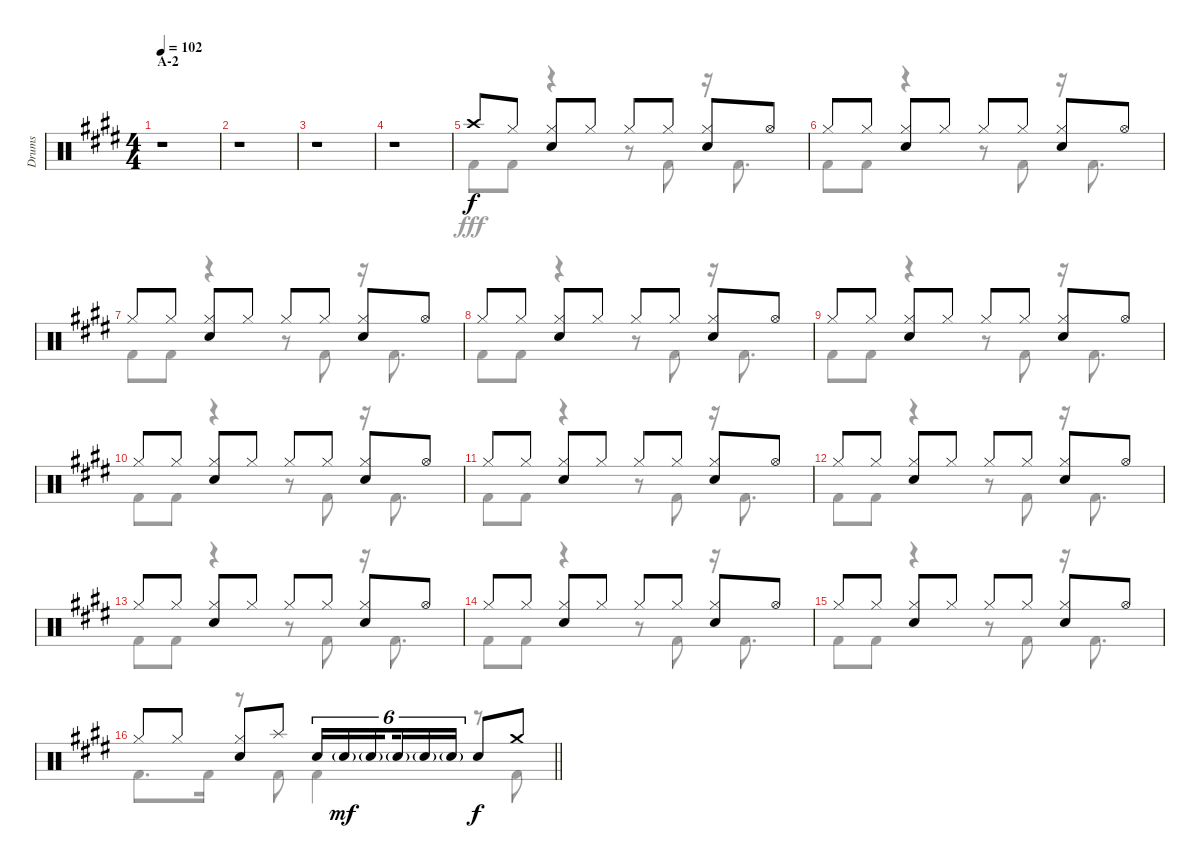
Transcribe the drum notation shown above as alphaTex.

\track ("Drums" "Drums") {instrument percussion}
\staff {score}
\articulation defaults
\voice
\ts (4 4)
\section ("" "A-2")
\tempo 102
\clef neutral
\ks e
r.1{dy f} |
r.1 |
r.1 |
r.1 |
"Crash high (hit)".8 "Hi-Hat (closed)".8 ("Hi-Hat (closed)" "Snare (hit) 2").8 "Hi-Hat (closed)".8 "Hi-Hat (closed)".8 "Hi-Hat (closed)".8 ("Hi-Hat (closed)" "Snare (hit) 2").8 "Hi-Hat (open)".8 |
"Hi-Hat (closed)".8 "Hi-Hat (closed)".8 ("Hi-Hat (closed)" "Snare (hit) 2").8 "Hi-Hat (closed)".8 "Hi-Hat (closed)".8 "Hi-Hat (closed)".8 ("Hi-Hat (closed)" "Snare (hit) 2").8 "Hi-Hat (open)".8 |
"Hi-Hat (closed)".8 "Hi-Hat (closed)".8 ("Hi-Hat (closed)" "Snare (hit) 2").8 "Hi-Hat (closed)".8 "Hi-Hat (closed)".8 "Hi-Hat (closed)".8 ("Hi-Hat (closed)" "Snare (hit) 2").8 "Hi-Hat (open)".8 |
"Hi-Hat (closed)".8 "Hi-Hat (closed)".8 ("Hi-Hat (closed)" "Snare (hit) 2").8 "Hi-Hat (closed)".8 "Hi-Hat (closed)".8 "Hi-Hat (closed)".8 ("Hi-Hat (closed)" "Snare (hit) 2").8 "Hi-Hat (open)".8 |
"Hi-Hat (closed)".8 "Hi-Hat (closed)".8 ("Hi-Hat (closed)" "Snare (hit) 2").8 "Hi-Hat (closed)".8 "Hi-Hat (closed)".8 "Hi-Hat (closed)".8 ("Hi-Hat (closed)" "Snare (hit) 2").8 "Hi-Hat (open)".8 |
"Hi-Hat (closed)".8 "Hi-Hat (closed)".8 ("Hi-Hat (closed)" "Snare (hit) 2").8 "Hi-Hat (closed)".8 "Hi-Hat (closed)".8 "Hi-Hat (closed)".8 ("Hi-Hat (closed)" "Snare (hit) 2").8 "Hi-Hat (open)".8 |
"Hi-Hat (closed)".8 "Hi-Hat (closed)".8 ("Hi-Hat (closed)" "Snare (hit) 2").8 "Hi-Hat (closed)".8 "Hi-Hat (closed)".8 "Hi-Hat (closed)".8 ("Hi-Hat (closed)" "Snare (hit) 2").8 "Hi-Hat (open)".8 |
"Hi-Hat (closed)".8 "Hi-Hat (closed)".8 ("Hi-Hat (closed)" "Snare (hit) 2").8 "Hi-Hat (closed)".8 "Hi-Hat (closed)".8 "Hi-Hat (closed)".8 ("Hi-Hat (closed)" "Snare (hit) 2").8 "Hi-Hat (open)".8 |
"Hi-Hat (closed)".8 "Hi-Hat (closed)".8 ("Hi-Hat (closed)" "Snare (hit) 2").8 "Hi-Hat (closed)".8 "Hi-Hat (closed)".8 "Hi-Hat (closed)".8 ("Hi-Hat (closed)" "Snare (hit) 2").8 "Hi-Hat (open)".8 |
"Hi-Hat (closed)".8 "Hi-Hat (closed)".8 ("Hi-Hat (closed)" "Snare (hit) 2").8 "Hi-Hat (closed)".8 "Hi-Hat (closed)".8 "Hi-Hat (closed)".8 ("Hi-Hat (closed)" "Snare (hit) 2").8 "Hi-Hat (open)".8 |
"Hi-Hat (closed)".8 "Hi-Hat (closed)".8 ("Hi-Hat (closed)" "Snare (hit) 2").8 "Hi-Hat (closed)".8 "Hi-Hat (closed)".8 "Hi-Hat (closed)".8 ("Hi-Hat (closed)" "Snare (hit) 2").8 "Hi-Hat (open)".8 |
\barLineRight lightlight "Hi-Hat (closed)".8 "Hi-Hat (closed)".8
("Hi-Hat (closed)" "Snare (hit) 2").8 "Splash (hit)".8 "Snare (hit) 2".16{tu (6 4)} "Snare (hit) 2"{g}.16{tu (6 4) dy mf} "Snare (hit) 2"{g}.16{tu (6 4) beam splitsecondary} "Snare (hit) 2"{g}.16{tu (6 4)} "Snare (hit) 2"{g}.16{tu (6 4)} "Snare (hit) 2"{g}.16{tu (6 4)} "Snare (hit) 2".8{dy f} "Crash medium (hit)".8
\voice
\clef neutral
\ottava regular
\simile none
\ks e
r.1{dy fff} |
r.1 |
r.1 |
r.1 |
"Kick (hit) 2".8 "Kick (hit) 2".8 r.4 r.8 "Kick (hit) 2".8 r.16 "Kick (hit) 2".8{d} |
"Kick (hit) 2".8 "Kick (hit) 2".8 r.4 r.8 "Kick (hit) 2".8 r.16 "Kick (hit) 2".8{d} |
"Kick (hit) 2".8 "Kick (hit) 2".8 r.4 r.8 "Kick (hit) 2".8 r.16 "Kick (hit) 2".8{d} |
"Kick (hit) 2".8 "Kick (hit) 2".8 r.4 r.8 "Kick (hit) 2".8 r.16 "Kick (hit) 2".8{d} |
"Kick (hit) 2".8 "Kick (hit) 2".8 r.4 r.8 "Kick (hit) 2".8 r.16 "Kick (hit) 2".8{d} |
"Kick (hit) 2".8 "Kick (hit) 2".8 r.4 r.8 "Kick (hit) 2".8 r.16 "Kick (hit) 2".8{d} |
"Kick (hit) 2".8 "Kick (hit) 2".8 r.4 r.8 "Kick (hit) 2".8 r.16 "Kick (hit) 2".8{d} |
"Kick (hit) 2".8 "Kick (hit) 2".8 r.4 r.8 "Kick (hit) 2".8 r.16 "Kick (hit) 2".8{d} |
"Kick (hit) 2".8 "Kick (hit) 2".8 r.4 r.8 "Kick (hit) 2".8 r.16 "Kick (hit) 2".8{d} |
"Kick (hit) 2".8 "Kick (hit) 2".8 r.4 r.8 "Kick (hit) 2".8 r.16 "Kick (hit) 2".8{d} |
"Kick (hit) 2".8 "Kick (hit) 2".8 r.4 r.8 "Kick (hit) 2".8 r.16 "Kick (hit) 2".8{d} |
\barLineRight lightlight "Kick (hit) 2".8{d} "Kick (hit) 2".16
r.8 "Kick (hit) 2".8 "Kick (hit) 2".4 r.8 "Kick (hit) 2".8
